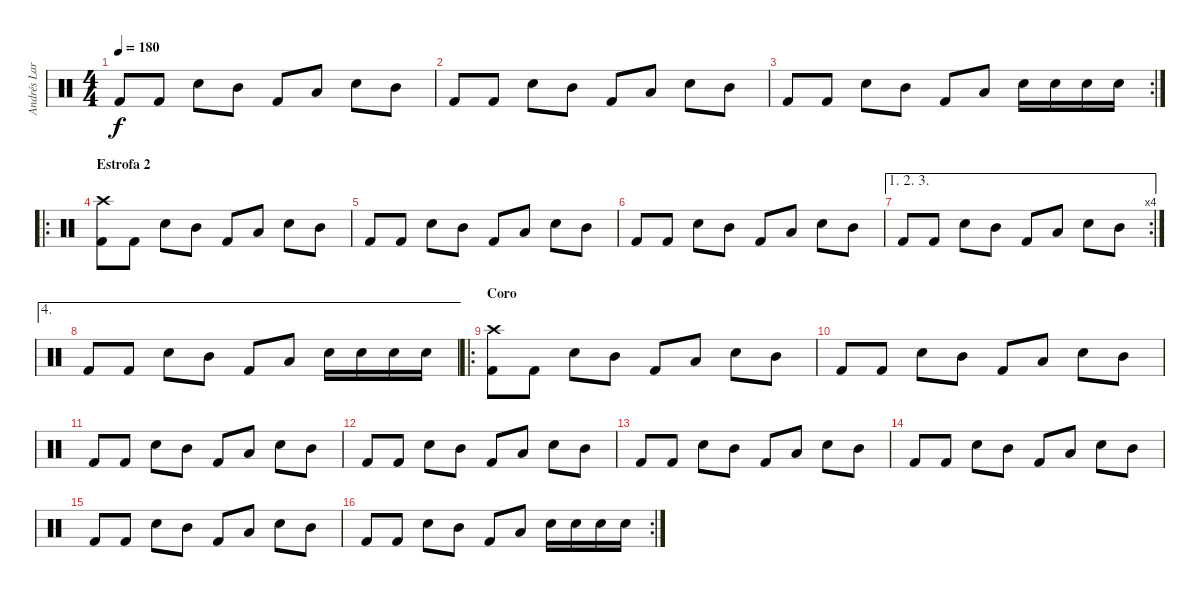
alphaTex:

\track ("Andrés Larraín (batería)" "Andrés Lar") {instrument percussion}
\staff {score}
\articulation defaults
\ts (4 4)
\tempo 180
\clef neutral
\ks c "Kick (hit) 2".8{dy f} "Kick (hit) 2".8 "Electric Snare (hit)".8 "Mid Tom (hit)".8 "Kick (hit) 2".8 "Low Floor Tom (hit)".8 "Electric Snare (hit)".8 "Mid Tom (hit)".8
|
"Kick (hit) 2".8 "Kick (hit) 2".8 "Electric Snare (hit)".8 "Mid Tom (hit)".8 "Kick (hit) 2".8 "Low Floor Tom (hit)".8 "Electric Snare (hit)".8 "Mid Tom (hit)".8 |
\rc 2 "Kick (hit) 2".8 "Kick (hit) 2".8 "Electric Snare (hit)".8 "Mid Tom (hit)".8 "Kick (hit) 2".8 "Low Floor Tom (hit)".8 "Electric Snare (hit)".16 "Electric Snare (hit)".16 "Electric Snare (hit)".16 "Electric Snare (hit)".16
|
\ro
\section ("" "Estrofa 2")
("Crash high (hit)" "Kick (hit) 2").8 "Kick (hit) 2".8 "Electric Snare (hit)".8 "Mid Tom (hit)".8 "Kick (hit) 2".8 "Low Floor Tom (hit)".8 "Electric Snare (hit)".8 "Mid Tom (hit)".8 |
"Kick (hit) 2".8 "Kick (hit) 2".8 "Electric Snare (hit)".8 "Mid Tom (hit)".8 "Kick (hit) 2".8 "Low Floor Tom (hit)".8 "Electric Snare (hit)".8 "Mid Tom (hit)".8 |
"Kick (hit) 2".8 "Kick (hit) 2".8 "Electric Snare (hit)".8 "Mid Tom (hit)".8 "Kick (hit) 2".8 "Low Floor Tom (hit)".8 "Electric Snare (hit)".8 "Mid Tom (hit)".8 |
\ae (1 2 3)
\rc 4 "Kick (hit) 2".8 "Kick (hit) 2".8 "Electric Snare (hit)".8 "Mid Tom (hit)".8 "Kick (hit) 2".8 "Low Floor Tom (hit)".8 "Electric Snare (hit)".8 "Mid Tom (hit)".8
|
\ae 4 "Kick (hit) 2".8 "Kick (hit) 2".8 "Electric Snare (hit)".8 "Mid Tom (hit)".8 "Kick (hit) 2".8 "Low Floor Tom (hit)".8 "Electric Snare (hit)".16 "Electric Snare (hit)".16 "Electric Snare (hit)".16 "Electric Snare (hit)".16
|
\ro
\section ("" "Coro")
("Crash high (hit)" "Kick (hit) 2").8 "Kick (hit) 2".8 "Electric Snare (hit)".8 "Mid Tom (hit)".8 "Kick (hit) 2".8 "Low Floor Tom (hit)".8 "Electric Snare (hit)".8 "Mid Tom (hit)".8 |
"Kick (hit) 2".8 "Kick (hit) 2".8 "Electric Snare (hit)".8 "Mid Tom (hit)".8 "Kick (hit) 2".8 "Low Floor Tom (hit)".8 "Electric Snare (hit)".8 "Mid Tom (hit)".8 |
"Kick (hit) 2".8 "Kick (hit) 2".8 "Electric Snare (hit)".8 "Mid Tom (hit)".8 "Kick (hit) 2".8 "Low Floor Tom (hit)".8 "Electric Snare (hit)".8 "Mid Tom (hit)".8 |
"Kick (hit) 2".8 "Kick (hit) 2".8 "Electric Snare (hit)".8 "Mid Tom (hit)".8 "Kick (hit) 2".8 "Low Floor Tom (hit)".8 "Electric Snare (hit)".8 "Mid Tom (hit)".8 |
"Kick (hit) 2".8 "Kick (hit) 2".8 "Electric Snare (hit)".8 "Mid Tom (hit)".8 "Kick (hit) 2".8 "Low Floor Tom (hit)".8 "Electric Snare (hit)".8 "Mid Tom (hit)".8 |
"Kick (hit) 2".8 "Kick (hit) 2".8 "Electric Snare (hit)".8 "Mid Tom (hit)".8 "Kick (hit) 2".8 "Low Floor Tom (hit)".8 "Electric Snare (hit)".8 "Mid Tom (hit)".8 |
"Kick (hit) 2".8 "Kick (hit) 2".8 "Electric Snare (hit)".8 "Mid Tom (hit)".8 "Kick (hit) 2".8 "Low Floor Tom (hit)".8 "Electric Snare (hit)".8 "Mid Tom (hit)".8 |
\rc 2 "Kick (hit) 2".8 "Kick (hit) 2".8 "Electric Snare (hit)".8 "Mid Tom (hit)".8 "Kick (hit) 2".8 "Low Floor Tom (hit)".8 "Electric Snare (hit)".16 "Electric Snare (hit)".16 "Electric Snare (hit)".16 "Electric Snare (hit)".16
